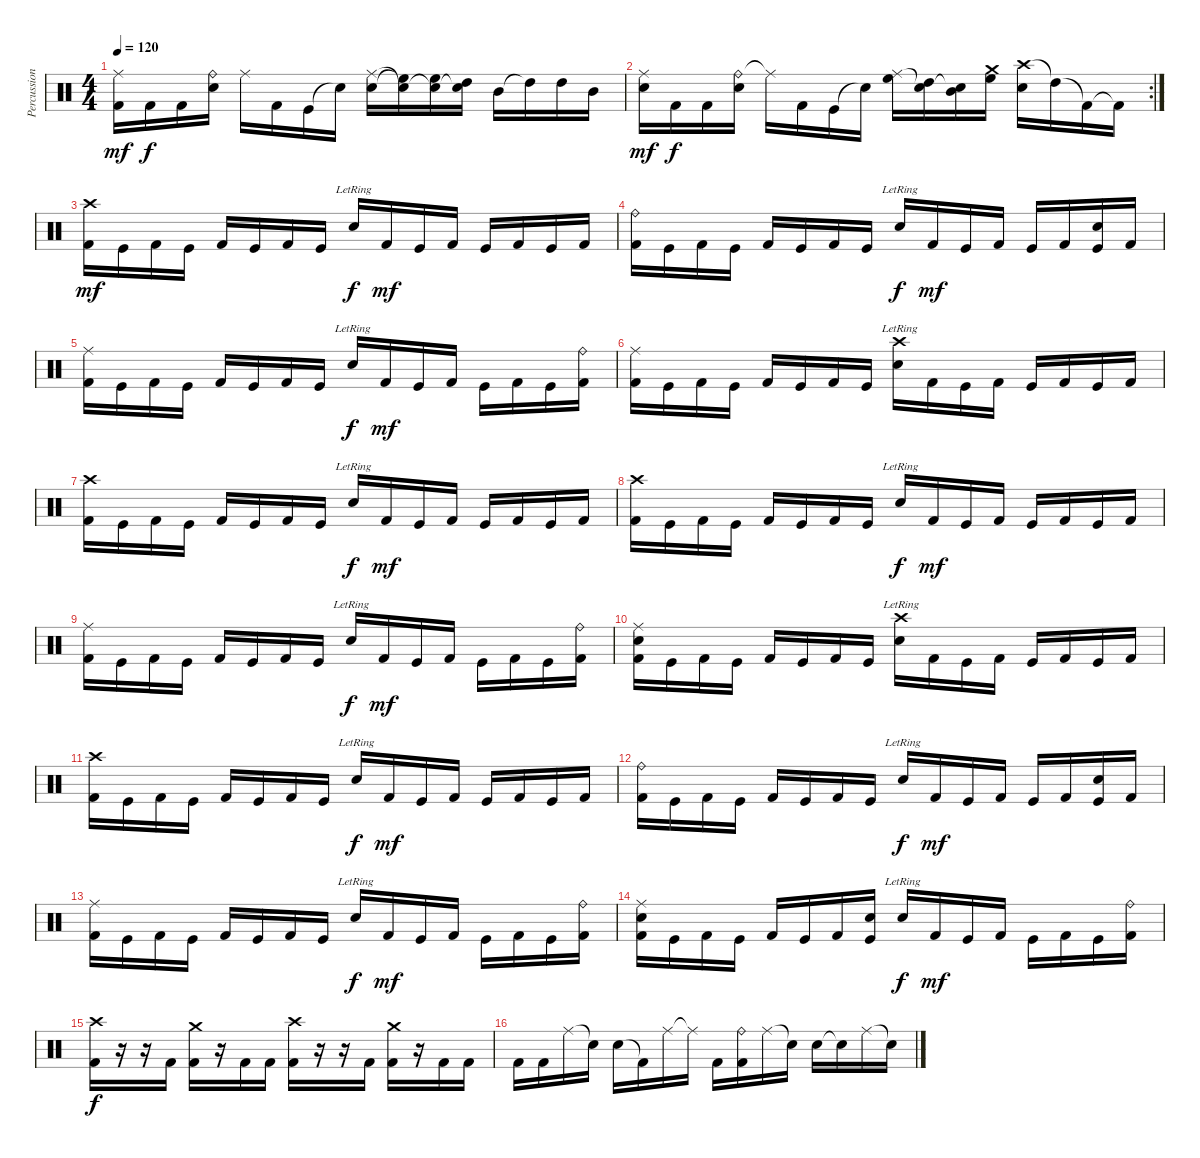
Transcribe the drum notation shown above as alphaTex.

\track ("Percussioni" "Percussion") {instrument percussion}
\staff {score}
\articulation defaults
\ts (4 4)
\tempo 120
\clef neutral
\ks c
("Ride (middle)" "Kick (hit) 2").16{dy mf} "Kick (hit) 2".16{dy f} "Kick (hit) 2".16 ("Ride (bell)" "Electric Snare (hit)").16 "Ride (middle)".16 "Kick (hit) 2".16 "Kick (hit)".16 "Snare (hit)"{t}.16 ("Ride (middle)" "Electric Snare (hit)").16 ("Snare (hit)"{t} "High Floor Tom (hit)"{t}).16 ("Snare (hit)"{t} "High Floor Tom (hit)").16 ("Snare (hit)"{t} "High Tom (hit)").16 "Mid Tom (hit)".16 "High Tom (hit)"{t}.16 "High Tom (hit)".16 "Mid Tom (hit)".16 |
\rc 2
("Ride (middle)" "Electric Snare (hit)").16{dy mf} "Kick (hit) 2".16{dy f} "Kick (hit) 2".16 ("Ride (bell)" "Electric Snare (hit)").16 "Ride (middle)"{t}.16 "Kick (hit) 2".16 "Kick (hit)".16 "Snare (hit)"{t}.16 ("Ride (middle)" "High Floor Tom (hit)").16 ("Snare (hit)"{t} "High Tom (hit)").16 ("Snare (hit)"{t} "Mid Tom (hit)").16 ("Crash medium (hit)" "High Floor Tom (hit)").16 ("Crash high (hit)" "Electric Snare (hit)").16 "High Tom (hit)"{t}.16 "Kick (hit) 2"{t}.16 "Kick (hit) 2"{t}.16 |
("Crash high (hit)" "Kick (hit) 2").16{dy mf} "Kick (hit)".16 "Kick (hit) 2".16 "Kick (hit)".16 "Kick (hit) 2".16 "Kick (hit)".16 "Kick (hit) 2".16 "Kick (hit)".16 "Electric Snare (hit)"{lr}.16{dy f} "Kick (hit) 2".16{dy mf} "Kick (hit)".16 "Kick (hit) 2".16 "Kick (hit)".16 "Kick (hit) 2".16 "Kick (hit)".16 "Kick (hit) 2".16 |
("Ride (bell)" "Kick (hit) 2").16 "Kick (hit)".16 "Kick (hit) 2".16 "Kick (hit)".16 "Kick (hit) 2".16 "Kick (hit)".16 "Kick (hit) 2".16 "Kick (hit)".16 "Electric Snare (hit)"{lr}.16{dy f} "Kick (hit) 2".16{dy mf} "Kick (hit)".16 "Kick (hit) 2".16 "Kick (hit)".16 "Kick (hit) 2".16 ("Kick (hit)" "Electric Snare (hit)").16 "Kick (hit) 2".16 |
("Ride (middle)" "Kick (hit) 2").16 "Kick (hit)".16 "Kick (hit) 2".16 "Kick (hit)".16 "Kick (hit) 2".16 "Kick (hit)".16 "Kick (hit) 2".16 "Kick (hit)".16 "Electric Snare (hit)"{lr}.16{dy f} "Kick (hit) 2".16{dy mf} "Kick (hit)".16 "Kick (hit) 2".16 "Kick (hit)".16 "Kick (hit) 2".16 "Kick (hit)".16 ("Ride (bell)" "Kick (hit) 2").16 |
("Ride (middle)" "Kick (hit) 2").16 "Kick (hit)".16 "Kick (hit) 2".16 "Kick (hit)".16 "Kick (hit) 2".16 "Kick (hit)".16 "Kick (hit) 2".16 "Kick (hit)".16 ("Crash high (hit)" "Electric Snare (hit)"{lr}).16 "Kick (hit) 2".16 "Kick (hit)".16 "Kick (hit) 2".16 "Kick (hit)".16 "Kick (hit) 2".16 "Kick (hit)".16 "Kick (hit) 2".16 |
("Crash high (hit)" "Kick (hit) 2").16 "Kick (hit)".16 "Kick (hit) 2".16 "Kick (hit)".16 "Kick (hit) 2".16 "Kick (hit)".16 "Kick (hit) 2".16 "Kick (hit)".16 "Electric Snare (hit)"{lr}.16{dy f} "Kick (hit) 2".16{dy mf} "Kick (hit)".16 "Kick (hit) 2".16 "Kick (hit)".16 "Kick (hit) 2".16 "Kick (hit)".16 "Kick (hit) 2".16 |
("Crash high (hit)" "Kick (hit) 2").16 "Kick (hit)".16 "Kick (hit) 2".16 "Kick (hit)".16 "Kick (hit) 2".16 "Kick (hit)".16 "Kick (hit) 2".16 "Kick (hit)".16 "Electric Snare (hit)"{lr}.16{dy f} "Kick (hit) 2".16{dy mf} "Kick (hit)".16 "Kick (hit) 2".16 "Kick (hit)".16 "Kick (hit) 2".16 "Kick (hit)".16 "Kick (hit) 2".16 |
("Ride (middle)" "Kick (hit) 2").16 "Kick (hit)".16 "Kick (hit) 2".16 "Kick (hit)".16 "Kick (hit) 2".16 "Kick (hit)".16 "Kick (hit) 2".16 "Kick (hit)".16 "Electric Snare (hit)"{lr}.16{dy f} "Kick (hit) 2".16{dy mf} "Kick (hit)".16 "Kick (hit) 2".16 "Kick (hit)".16 "Kick (hit) 2".16 "Kick (hit)".16 ("Ride (bell)" "Kick (hit) 2").16 |
("Ride (middle)" "Kick (hit) 2" "Electric Snare (hit)").16 "Kick (hit)".16 "Kick (hit) 2".16 "Kick (hit)".16 "Kick (hit) 2".16 "Kick (hit)".16 "Kick (hit) 2".16 "Kick (hit)".16 ("Crash high (hit)" "Electric Snare (hit)"{lr}).16 "Kick (hit) 2".16 "Kick (hit)".16 "Kick (hit) 2".16 "Kick (hit)".16 "Kick (hit) 2".16 "Kick (hit)".16 "Kick (hit) 2".16 |
("Crash high (hit)" "Kick (hit) 2").16 "Kick (hit)".16 "Kick (hit) 2".16 "Kick (hit)".16 "Kick (hit) 2".16 "Kick (hit)".16 "Kick (hit) 2".16 "Kick (hit)".16 "Electric Snare (hit)"{lr}.16{dy f} "Kick (hit) 2".16{dy mf} "Kick (hit)".16 "Kick (hit) 2".16 "Kick (hit)".16 "Kick (hit) 2".16 "Kick (hit)".16 "Kick (hit) 2".16 |
("Ride (bell)" "Kick (hit) 2").16 "Kick (hit)".16 "Kick (hit) 2".16 "Kick (hit)".16 "Kick (hit) 2".16 "Kick (hit)".16 "Kick (hit) 2".16 "Kick (hit)".16 "Electric Snare (hit)"{lr}.16{dy f} "Kick (hit) 2".16{dy mf} "Kick (hit)".16 "Kick (hit) 2".16 "Kick (hit)".16 "Kick (hit) 2".16 ("Kick (hit)" "Electric Snare (hit)").16 "Kick (hit) 2".16 |
("Ride (middle)" "Kick (hit) 2").16 "Kick (hit)".16 "Kick (hit) 2".16 "Kick (hit)".16 "Kick (hit) 2".16 "Kick (hit)".16 "Kick (hit) 2".16 "Kick (hit)".16 "Electric Snare (hit)"{lr}.16{dy f} "Kick (hit) 2".16{dy mf} "Kick (hit)".16 "Kick (hit) 2".16 "Kick (hit)".16 "Kick (hit) 2".16 "Kick (hit)".16 ("Ride (bell)" "Kick (hit) 2").16 |
("Ride (middle)" "Kick (hit) 2" "Electric Snare (hit)").16 "Kick (hit)".16 "Kick (hit) 2".16 "Kick (hit)".16 "Kick (hit) 2".16 "Kick (hit)".16 "Kick (hit) 2".16 ("Kick (hit)" "Electric Snare (hit)").16 "Electric Snare (hit)"{lr}.16{dy f} "Kick (hit) 2".16{dy mf} "Kick (hit)".16 "Kick (hit) 2".16 "Kick (hit)".16 "Kick (hit) 2".16 "Kick (hit)".16 ("Ride (bell)" "Kick (hit) 2").16 |
("Crash high (hit)" "Kick (hit) 2").16{dy f} r.16 r.16 "Kick (hit) 2".16 ("Crash medium (hit)" "Kick (hit) 2").16 r.16 "Kick (hit) 2".16 "Kick (hit) 2".16 ("Crash high (hit)" "Kick (hit) 2").16 r.16 r.16 "Kick (hit) 2".16 ("Crash medium (hit)" "Kick (hit) 2").16 r.16 "Kick (hit) 2".16 "Kick (hit) 2".16 |
"Kick (hit) 2".16 "Kick (hit) 2".16 "Ride (middle)".16 "Snare (hit)"{t}.16 "Electric Snare (hit)".16 "Kick (hit) 2"{t}.16 "Ride (middle)".16 "Ride (middle)"{t}.16 "Kick (hit) 2".16 ("Ride (bell)" "Kick (hit) 2").16 "Ride (middle)".16 "Snare (hit)"{t}.16 "Electric Snare (hit)".16 "Snare (hit)"{t}.16 "Ride (middle)".16 "Snare (hit)"{t}.16
